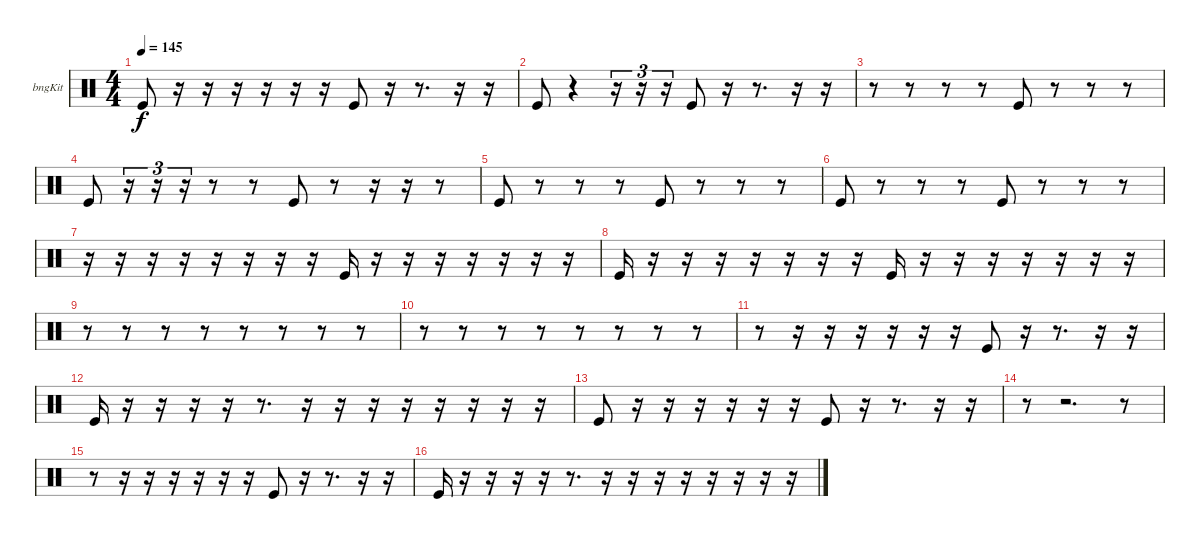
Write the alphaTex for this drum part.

\bracketExtendMode groupsimilarinstruments
\firstSystemTrackNameOrientation horizontal
\otherSystemsTrackNameOrientation horizontal
\track ("Bongos" "bngKit") {instrument percussion}
\staff {score}
\articulation defaults
\ts (4 4)
\tempo 145
\clef neutral
\ks c "Kick (hit)".8{dy f}
r.16 r.16 r.16 r.16 r.16 r.16 "Kick (hit)".8 r.16 r.8{d} r.16 r.16 |
"Kick (hit)".8 r.4 r.16{tu (3 2)} r.16{tu (3 2)} r.16{tu (3 2)} "Kick (hit)".8 r.16 r.8{d} r.16 r.16 |
r.8 r.8 r.8 r.8 "Kick (hit)".8 r.8 r.8 r.8 |
"Kick (hit)".8 r.16{tu (3 2)} r.16{tu (3 2)} r.16{tu (3 2)} r.8 r.8 "Kick (hit)".8 r.8 r.16 r.16 r.8 |
"Kick (hit)".8 r.8 r.8 r.8 "Kick (hit)".8 r.8 r.8 r.8 |
"Kick (hit)".8 r.8 r.8 r.8 "Kick (hit)".8 r.8 r.8 r.8 |
r.16 r.16 r.16 r.16 r.16 r.16 r.16 r.16 "Kick (hit)".16 r.16 r.16 r.16 r.16 r.16 r.16 r.16 |
"Kick (hit)".16 r.16 r.16 r.16 r.16 r.16 r.16 r.16 "Kick (hit)".16 r.16 r.16 r.16 r.16 r.16 r.16 r.16 |
r.8 r.8 r.8 r.8 r.8 r.8 r.8 r.8 |
r.8 r.8 r.8 r.8 r.8 r.8 r.8 r.8 |
r.8 r.16 r.16 r.16 r.16 r.16 r.16 "Kick (hit)".8 r.16 r.8{d} r.16 r.16 |
"Kick (hit)".16 r.16 r.16 r.16 r.16 r.8{d} r.16 r.16 r.16 r.16 r.16 r.16 r.16 r.16 |
"Kick (hit)".8 r.16 r.16 r.16 r.16 r.16 r.16 "Kick (hit)".8 r.16 r.8{d} r.16 r.16 |
r.8 r.2{d} r.8 |
r.8 r.16 r.16 r.16 r.16 r.16 r.16 "Kick (hit)".8 r.16 r.8{d} r.16 r.16 |
"Kick (hit)".16 r.16 r.16 r.16 r.16 r.8{d} r.16 r.16 r.16 r.16 r.16 r.16 r.16 r.16
